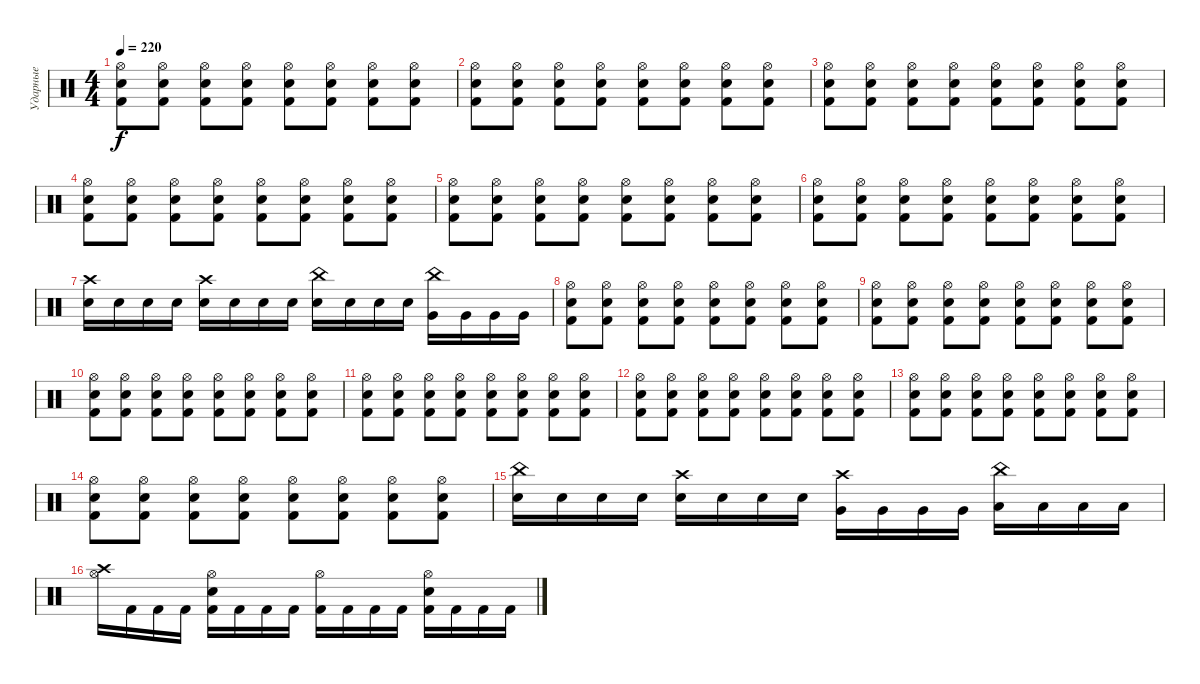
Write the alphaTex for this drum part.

\track ("Ударные" "Ударные") {instrument percussion}
\staff {score}
\articulation defaults
\ts (4 4)
\tempo 220
\clef neutral
\ks c
("Kick (hit) 2" "Electric Snare (hit)" "Hi-Hat (open)").8{dy f} ("Hi-Hat (open)" "Kick (hit) 2" "Electric Snare (hit)").8 ("Electric Snare (hit)" "Kick (hit) 2" "Hi-Hat (open)").8 ("Hi-Hat (open)" "Kick (hit) 2" "Electric Snare (hit)").8 ("Electric Snare (hit)" "Kick (hit) 2" "Hi-Hat (open)").8 ("Hi-Hat (open)" "Kick (hit) 2" "Electric Snare (hit)").8 ("Electric Snare (hit)" "Kick (hit) 2" "Hi-Hat (open)").8 ("Hi-Hat (open)" "Kick (hit) 2" "Electric Snare (hit)").8 |
("Kick (hit) 2" "Electric Snare (hit)" "Hi-Hat (open)").8 ("Hi-Hat (open)" "Kick (hit) 2" "Electric Snare (hit)").8 ("Electric Snare (hit)" "Kick (hit) 2" "Hi-Hat (open)").8 ("Hi-Hat (open)" "Kick (hit) 2" "Electric Snare (hit)").8 ("Electric Snare (hit)" "Kick (hit) 2" "Hi-Hat (open)").8 ("Hi-Hat (open)" "Kick (hit) 2" "Electric Snare (hit)").8 ("Electric Snare (hit)" "Kick (hit) 2" "Hi-Hat (open)").8 ("Hi-Hat (open)" "Kick (hit) 2" "Electric Snare (hit)").8 |
("Kick (hit) 2" "Electric Snare (hit)" "Hi-Hat (open)").8 ("Hi-Hat (open)" "Kick (hit) 2" "Electric Snare (hit)").8 ("Electric Snare (hit)" "Kick (hit) 2" "Hi-Hat (open)").8 ("Hi-Hat (open)" "Kick (hit) 2" "Electric Snare (hit)").8 ("Electric Snare (hit)" "Kick (hit) 2" "Hi-Hat (open)").8 ("Hi-Hat (open)" "Kick (hit) 2" "Electric Snare (hit)").8 ("Electric Snare (hit)" "Kick (hit) 2" "Hi-Hat (open)").8 ("Hi-Hat (open)" "Kick (hit) 2" "Electric Snare (hit)").8 |
("Kick (hit) 2" "Electric Snare (hit)" "Hi-Hat (open)").8 ("Hi-Hat (open)" "Kick (hit) 2" "Electric Snare (hit)").8 ("Electric Snare (hit)" "Kick (hit) 2" "Hi-Hat (open)").8 ("Hi-Hat (open)" "Kick (hit) 2" "Electric Snare (hit)").8 ("Electric Snare (hit)" "Kick (hit) 2" "Hi-Hat (open)").8 ("Hi-Hat (open)" "Kick (hit) 2" "Electric Snare (hit)").8 ("Electric Snare (hit)" "Kick (hit) 2" "Hi-Hat (open)").8 ("Hi-Hat (open)" "Kick (hit) 2" "Electric Snare (hit)").8 |
("Kick (hit) 2" "Electric Snare (hit)" "Hi-Hat (open)").8 ("Hi-Hat (open)" "Kick (hit) 2" "Electric Snare (hit)").8 ("Electric Snare (hit)" "Kick (hit) 2" "Hi-Hat (open)").8 ("Hi-Hat (open)" "Kick (hit) 2" "Electric Snare (hit)").8 ("Electric Snare (hit)" "Kick (hit) 2" "Hi-Hat (open)").8 ("Hi-Hat (open)" "Kick (hit) 2" "Electric Snare (hit)").8 ("Electric Snare (hit)" "Kick (hit) 2" "Hi-Hat (open)").8 ("Hi-Hat (open)" "Kick (hit) 2" "Electric Snare (hit)").8 |
("Kick (hit) 2" "Electric Snare (hit)" "Hi-Hat (open)").8 ("Hi-Hat (open)" "Kick (hit) 2" "Electric Snare (hit)").8 ("Electric Snare (hit)" "Kick (hit) 2" "Hi-Hat (open)").8 ("Hi-Hat (open)" "Kick (hit) 2" "Electric Snare (hit)").8 ("Electric Snare (hit)" "Kick (hit) 2" "Hi-Hat (open)").8 ("Hi-Hat (open)" "Kick (hit) 2" "Electric Snare (hit)").8 ("Electric Snare (hit)" "Kick (hit) 2" "Hi-Hat (open)").8 ("Hi-Hat (open)" "Kick (hit) 2" "Electric Snare (hit)").8 |
("Electric Snare (hit)" "Crash high (hit)").16 "Electric Snare (hit)".16 "Electric Snare (hit)".16 "Electric Snare (hit)".16 ("Electric Snare (hit)" "Crash high (hit)").16 "Electric Snare (hit)".16 "Snare (hit) 2".16 "Snare (hit) 2".16 ("Snare (hit) 2" "China (hit)").16 "Snare (hit) 2".16 "Snare (hit) 2".16 "Snare (hit) 2".16 ("Very Low Tom (hit)" "China (hit)").16 "Very Low Tom (hit)".16 "Very Low Tom (hit)".16 "Very Low Tom (hit)".16 |
("Kick (hit) 2" "Electric Snare (hit)" "Hi-Hat (open)").8 ("Hi-Hat (open)" "Kick (hit) 2" "Electric Snare (hit)").8 ("Electric Snare (hit)" "Kick (hit) 2" "Hi-Hat (open)").8 ("Hi-Hat (open)" "Kick (hit) 2" "Electric Snare (hit)").8 ("Electric Snare (hit)" "Kick (hit) 2" "Hi-Hat (open)").8 ("Hi-Hat (open)" "Kick (hit) 2" "Electric Snare (hit)").8 ("Electric Snare (hit)" "Kick (hit) 2" "Hi-Hat (open)").8 ("Hi-Hat (open)" "Kick (hit) 2" "Electric Snare (hit)").8 |
("Kick (hit) 2" "Electric Snare (hit)" "Hi-Hat (open)").8 ("Hi-Hat (open)" "Kick (hit) 2" "Electric Snare (hit)").8 ("Electric Snare (hit)" "Kick (hit) 2" "Hi-Hat (open)").8 ("Hi-Hat (open)" "Kick (hit) 2" "Electric Snare (hit)").8 ("Electric Snare (hit)" "Kick (hit) 2" "Hi-Hat (open)").8 ("Hi-Hat (open)" "Kick (hit) 2" "Electric Snare (hit)").8 ("Electric Snare (hit)" "Kick (hit) 2" "Hi-Hat (open)").8 ("Hi-Hat (open)" "Kick (hit) 2" "Electric Snare (hit)").8 |
("Kick (hit) 2" "Electric Snare (hit)" "Hi-Hat (open)").8 ("Hi-Hat (open)" "Kick (hit) 2" "Electric Snare (hit)").8 ("Electric Snare (hit)" "Kick (hit) 2" "Hi-Hat (open)").8 ("Hi-Hat (open)" "Kick (hit) 2" "Electric Snare (hit)").8 ("Electric Snare (hit)" "Kick (hit) 2" "Hi-Hat (open)").8 ("Hi-Hat (open)" "Kick (hit) 2" "Electric Snare (hit)").8 ("Electric Snare (hit)" "Kick (hit) 2" "Hi-Hat (open)").8 ("Hi-Hat (open)" "Kick (hit) 2" "Electric Snare (hit)").8 |
("Kick (hit) 2" "Electric Snare (hit)" "Hi-Hat (open)").8 ("Hi-Hat (open)" "Kick (hit) 2" "Electric Snare (hit)").8 ("Electric Snare (hit)" "Kick (hit) 2" "Hi-Hat (open)").8 ("Hi-Hat (open)" "Kick (hit) 2" "Electric Snare (hit)").8 ("Electric Snare (hit)" "Kick (hit) 2" "Hi-Hat (open)").8 ("Hi-Hat (open)" "Kick (hit) 2" "Electric Snare (hit)").8 ("Electric Snare (hit)" "Kick (hit) 2" "Hi-Hat (open)").8 ("Hi-Hat (open)" "Kick (hit) 2" "Electric Snare (hit)").8 |
("Kick (hit) 2" "Electric Snare (hit)" "Hi-Hat (open)").8 ("Hi-Hat (open)" "Kick (hit) 2" "Electric Snare (hit)").8 ("Electric Snare (hit)" "Kick (hit) 2" "Hi-Hat (open)").8 ("Hi-Hat (open)" "Kick (hit) 2" "Electric Snare (hit)").8 ("Electric Snare (hit)" "Kick (hit) 2" "Hi-Hat (open)").8 ("Hi-Hat (open)" "Kick (hit) 2" "Electric Snare (hit)").8 ("Electric Snare (hit)" "Kick (hit) 2" "Hi-Hat (open)").8 ("Hi-Hat (open)" "Kick (hit) 2" "Electric Snare (hit)").8 |
("Kick (hit) 2" "Electric Snare (hit)" "Hi-Hat (open)").8 ("Hi-Hat (open)" "Kick (hit) 2" "Electric Snare (hit)").8 ("Electric Snare (hit)" "Kick (hit) 2" "Hi-Hat (open)").8 ("Hi-Hat (open)" "Kick (hit) 2" "Electric Snare (hit)").8 ("Electric Snare (hit)" "Kick (hit) 2" "Hi-Hat (open)").8 ("Hi-Hat (open)" "Kick (hit) 2" "Electric Snare (hit)").8 ("Electric Snare (hit)" "Kick (hit) 2" "Hi-Hat (open)").8 ("Hi-Hat (open)" "Kick (hit) 2" "Electric Snare (hit)").8 |
("Kick (hit) 2" "Electric Snare (hit)" "Hi-Hat (open)").8 ("Hi-Hat (open)" "Kick (hit) 2" "Electric Snare (hit)").8 ("Electric Snare (hit)" "Kick (hit) 2" "Hi-Hat (open)").8 ("Hi-Hat (open)" "Kick (hit) 2" "Electric Snare (hit)").8 ("Electric Snare (hit)" "Kick (hit) 2" "Hi-Hat (open)").8 ("Hi-Hat (open)" "Kick (hit) 2" "Electric Snare (hit)").8 ("Electric Snare (hit)" "Kick (hit) 2" "Hi-Hat (open)").8 ("Hi-Hat (open)" "Kick (hit) 2" "Electric Snare (hit)").8 |
("Electric Snare (hit)" "China (hit)").16 "Electric Snare (hit)".16 "Electric Snare (hit)".16 "Electric Snare (hit)".16 ("Snare (hit) 2" "Crash high (hit)").16 "Snare (hit) 2".16 "Snare (hit) 2".16 "Snare (hit) 2".16 ("Very Low Tom (hit)" "Crash high (hit)").16 "Very Low Tom (hit)".16 "Very Low Tom (hit)".16 "Very Low Tom (hit)".16 ("Low Tom (hit)" "China (hit)").16 "Low Tom (hit)".16 "Low Tom (hit)".16 "Low Tom (hit)".16 |
("Crash high (hit)" "Hi-Hat (open)").16 "Kick (hit) 2".16 "Kick (hit) 2".16 "Kick (hit) 2".16 ("Kick (hit) 2" "Electric Snare (hit)" "Hi-Hat (open)").16 "Kick (hit) 2".16 "Kick (hit) 2".16 "Kick (hit) 2".16 ("Kick (hit) 2" "Hi-Hat (open)").16 "Kick (hit) 2".16 "Kick (hit) 2".16 "Kick (hit) 2".16 ("Kick (hit) 2" "Electric Snare (hit)" "Hi-Hat (open)").16 "Kick (hit) 2".16 "Kick (hit) 2".16 "Kick (hit) 2".16
